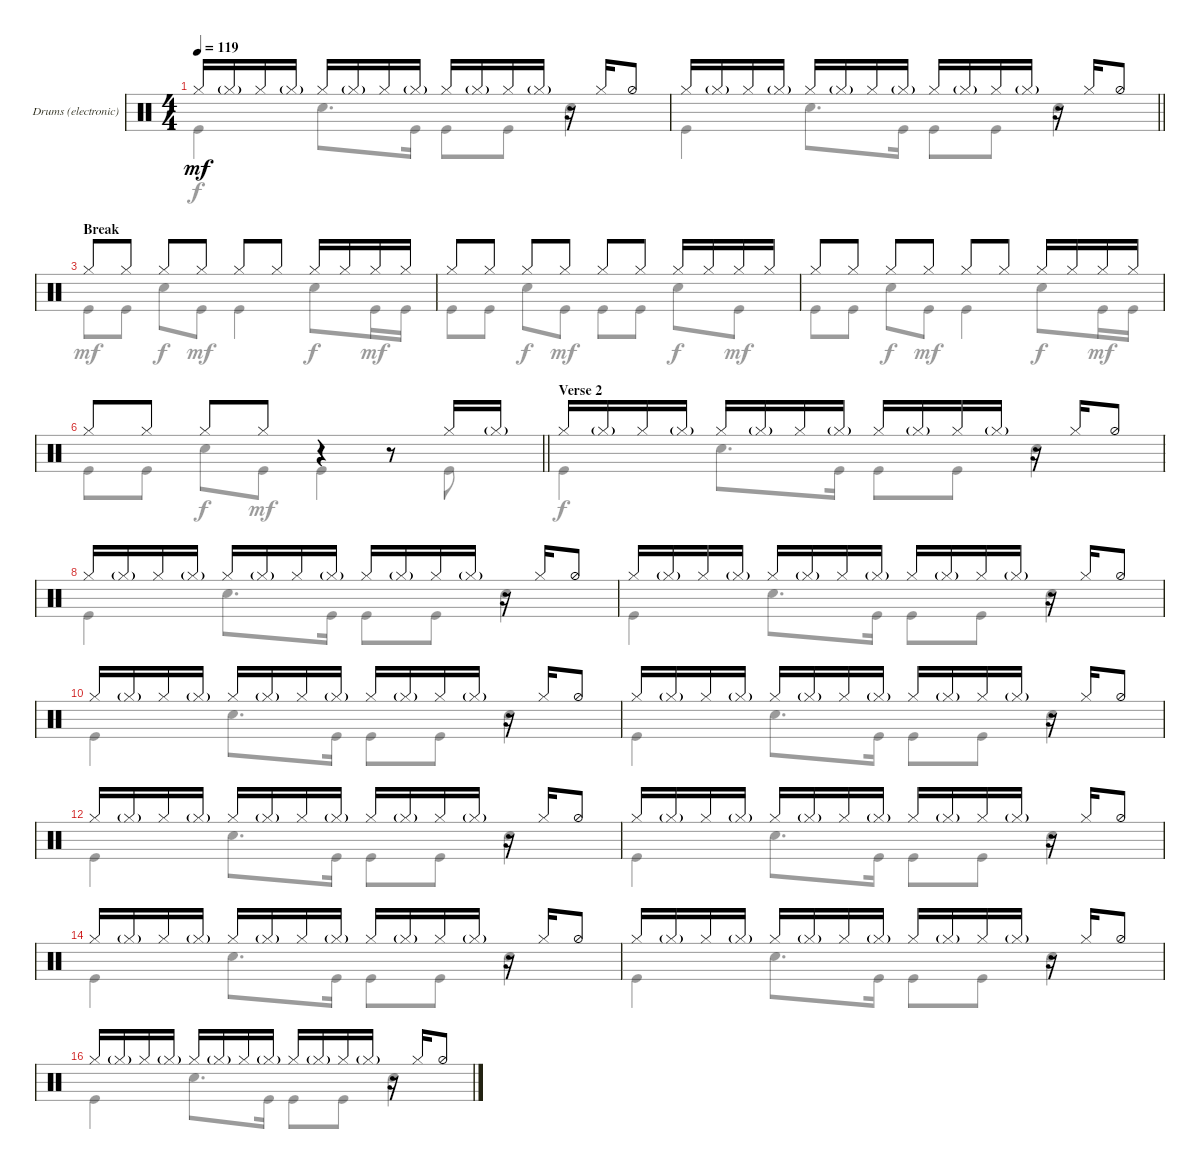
\defaultSystemsLayout 4
\bracketExtendMode groupsimilarinstruments
\useSystemSignSeparator
\multiBarRest
\multiTrackTrackNamePolicy allsystems
\firstSystemTrackNameMode fullname
\firstSystemTrackNameOrientation horizontal
\otherSystemsTrackNameOrientation horizontal
\defaultBarNumberDisplay FirstOfSystem
\track ("Drums (electronic)" "Dr.") {multiBarRest instrument percussion}
\staff {score}
\articulation defaults
\voice
\ts (4 4)
\tempo 119
\clef neutral
\ks aminor "Hi-Hat (closed)".16{dy mf} "Hi-Hat (closed)"{g}.16 "Hi-Hat (closed)".16 "Hi-Hat (closed)"{g}.16 "Hi-Hat (closed)".16 "Hi-Hat (closed)"{g}.16 "Hi-Hat (closed)".16 "Hi-Hat (closed)"{g}.16 "Hi-Hat (closed)".16 "Hi-Hat (closed)"{g}.16 "Hi-Hat (closed)".16 "Hi-Hat (closed)"{g}.16
r.16 "Hi-Hat (closed)".16 "Hi-Hat (half)".8 |
\barLineRight lightlight "Hi-Hat (closed)".16 "Hi-Hat (closed)"{g}.16 "Hi-Hat (closed)".16 "Hi-Hat (closed)"{g}.16 "Hi-Hat (closed)".16 "Hi-Hat (closed)"{g}.16 "Hi-Hat (closed)".16 "Hi-Hat (closed)"{g}.16 "Hi-Hat (closed)".16 "Hi-Hat (closed)"{g}.16 "Hi-Hat (closed)".16 "Hi-Hat (closed)"{g}.16
r.16 "Hi-Hat (closed)".16 "Hi-Hat (half)".8 |
\section ("" "Break")
"Hi-Hat (closed)".8 "Hi-Hat (closed)".8 "Hi-Hat (closed)".8 "Hi-Hat (closed)".8 "Hi-Hat (closed)".8 "Hi-Hat (closed)".8 "Hi-Hat (closed)".16 "Hi-Hat (closed)".16 "Hi-Hat (closed)".16 "Hi-Hat (closed)".16 |
"Hi-Hat (closed)".8 "Hi-Hat (closed)".8 "Hi-Hat (closed)".8 "Hi-Hat (closed)".8 "Hi-Hat (closed)".8 "Hi-Hat (closed)".8 "Hi-Hat (closed)".16 "Hi-Hat (closed)".16 "Hi-Hat (closed)".16 "Hi-Hat (closed)".16 |
"Hi-Hat (closed)".8 "Hi-Hat (closed)".8 "Hi-Hat (closed)".8 "Hi-Hat (closed)".8 "Hi-Hat (closed)".8 "Hi-Hat (closed)".8 "Hi-Hat (closed)".16 "Hi-Hat (closed)".16 "Hi-Hat (closed)".16 "Hi-Hat (closed)".16 |
\barLineRight lightlight "Hi-Hat (closed)".8 "Hi-Hat (closed)".8 "Hi-Hat (closed)".8 "Hi-Hat (closed)".8
r.4 r.8 "Hi-Hat (closed)".16 "Hi-Hat (closed)"{g}.16 |
\section ("" "Verse 2")
"Hi-Hat (closed)".16 "Hi-Hat (closed)"{g}.16 "Hi-Hat (closed)".16 "Hi-Hat (closed)"{g}.16 "Hi-Hat (closed)".16 "Hi-Hat (closed)"{g}.16 "Hi-Hat (closed)".16 "Hi-Hat (closed)"{g}.16 "Hi-Hat (closed)".16 "Hi-Hat (closed)"{g}.16 "Hi-Hat (closed)".16 "Hi-Hat (closed)"{g}.16 r.16 "Hi-Hat (closed)".16 "Hi-Hat (half)".8 |
"Hi-Hat (closed)".16 "Hi-Hat (closed)"{g}.16 "Hi-Hat (closed)".16 "Hi-Hat (closed)"{g}.16 "Hi-Hat (closed)".16 "Hi-Hat (closed)"{g}.16 "Hi-Hat (closed)".16 "Hi-Hat (closed)"{g}.16 "Hi-Hat (closed)".16 "Hi-Hat (closed)"{g}.16 "Hi-Hat (closed)".16 "Hi-Hat (closed)"{g}.16 r.16 "Hi-Hat (closed)".16 "Hi-Hat (half)".8 |
"Hi-Hat (closed)".16 "Hi-Hat (closed)"{g}.16 "Hi-Hat (closed)".16 "Hi-Hat (closed)"{g}.16 "Hi-Hat (closed)".16 "Hi-Hat (closed)"{g}.16 "Hi-Hat (closed)".16 "Hi-Hat (closed)"{g}.16 "Hi-Hat (closed)".16 "Hi-Hat (closed)"{g}.16 "Hi-Hat (closed)".16 "Hi-Hat (closed)"{g}.16 r.16 "Hi-Hat (closed)".16 "Hi-Hat (half)".8 |
"Hi-Hat (closed)".16 "Hi-Hat (closed)"{g}.16 "Hi-Hat (closed)".16 "Hi-Hat (closed)"{g}.16 "Hi-Hat (closed)".16 "Hi-Hat (closed)"{g}.16 "Hi-Hat (closed)".16 "Hi-Hat (closed)"{g}.16 "Hi-Hat (closed)".16 "Hi-Hat (closed)"{g}.16 "Hi-Hat (closed)".16 "Hi-Hat (closed)"{g}.16 r.16 "Hi-Hat (closed)".16 "Hi-Hat (half)".8 |
"Hi-Hat (closed)".16 "Hi-Hat (closed)"{g}.16 "Hi-Hat (closed)".16 "Hi-Hat (closed)"{g}.16 "Hi-Hat (closed)".16 "Hi-Hat (closed)"{g}.16 "Hi-Hat (closed)".16 "Hi-Hat (closed)"{g}.16 "Hi-Hat (closed)".16 "Hi-Hat (closed)"{g}.16 "Hi-Hat (closed)".16 "Hi-Hat (closed)"{g}.16 r.16 "Hi-Hat (closed)".16 "Hi-Hat (half)".8 |
"Hi-Hat (closed)".16 "Hi-Hat (closed)"{g}.16 "Hi-Hat (closed)".16 "Hi-Hat (closed)"{g}.16 "Hi-Hat (closed)".16 "Hi-Hat (closed)"{g}.16 "Hi-Hat (closed)".16 "Hi-Hat (closed)"{g}.16 "Hi-Hat (closed)".16 "Hi-Hat (closed)"{g}.16 "Hi-Hat (closed)".16 "Hi-Hat (closed)"{g}.16 r.16 "Hi-Hat (closed)".16 "Hi-Hat (half)".8 |
"Hi-Hat (closed)".16 "Hi-Hat (closed)"{g}.16 "Hi-Hat (closed)".16 "Hi-Hat (closed)"{g}.16 "Hi-Hat (closed)".16 "Hi-Hat (closed)"{g}.16 "Hi-Hat (closed)".16 "Hi-Hat (closed)"{g}.16 "Hi-Hat (closed)".16 "Hi-Hat (closed)"{g}.16 "Hi-Hat (closed)".16 "Hi-Hat (closed)"{g}.16 r.16 "Hi-Hat (closed)".16 "Hi-Hat (half)".8 |
"Hi-Hat (closed)".16 "Hi-Hat (closed)"{g}.16 "Hi-Hat (closed)".16 "Hi-Hat (closed)"{g}.16 "Hi-Hat (closed)".16 "Hi-Hat (closed)"{g}.16 "Hi-Hat (closed)".16 "Hi-Hat (closed)"{g}.16 "Hi-Hat (closed)".16 "Hi-Hat (closed)"{g}.16 "Hi-Hat (closed)".16 "Hi-Hat (closed)"{g}.16 r.16 "Hi-Hat (closed)".16 "Hi-Hat (half)".8 |
"Hi-Hat (closed)".16 "Hi-Hat (closed)"{g}.16 "Hi-Hat (closed)".16 "Hi-Hat (closed)"{g}.16 "Hi-Hat (closed)".16 "Hi-Hat (closed)"{g}.16 "Hi-Hat (closed)".16 "Hi-Hat (closed)"{g}.16 "Hi-Hat (closed)".16 "Hi-Hat (closed)"{g}.16 "Hi-Hat (closed)".16 "Hi-Hat (closed)"{g}.16 r.16 "Hi-Hat (closed)".16 "Hi-Hat (half)".8 |
"Hi-Hat (closed)".16 "Hi-Hat (closed)"{g}.16 "Hi-Hat (closed)".16 "Hi-Hat (closed)"{g}.16 "Hi-Hat (closed)".16 "Hi-Hat (closed)"{g}.16 "Hi-Hat (closed)".16 "Hi-Hat (closed)"{g}.16 "Hi-Hat (closed)".16 "Hi-Hat (closed)"{g}.16 "Hi-Hat (closed)".16 "Hi-Hat (closed)"{g}.16 r.16 "Hi-Hat (closed)".16 "Hi-Hat (half)".8
\voice
\clef neutral
\ottava regular
\simile none
\ks aminor "Kick (hit)".4{dy f} "Snare (hit) 2".8{d} "Kick (hit)".16 "Kick (hit)".8 "Kick (hit)".8 "Snare (hit) 2".4
|
\barLineRight lightlight "Kick (hit)".4 "Snare (hit) 2".8{d} "Kick (hit)".16 "Kick (hit)".8 "Kick (hit)".8 "Snare (hit) 2".4
|
"Kick (hit)".8{dy mf} "Kick (hit)".8 "Snare (hit) 2".8{dy f} "Kick (hit)".8{dy mf} "Kick (hit)".4 "Snare (hit) 2".8{dy f} "Kick (hit)".16{dy mf} "Kick (hit)".16 |
"Kick (hit)".8 "Kick (hit)".8 "Snare (hit) 2".8{dy f} "Kick (hit)".8{dy mf} "Kick (hit)".8 "Kick (hit)".8 "Snare (hit) 2".8{dy f} "Kick (hit)".8{dy mf} |
"Kick (hit)".8 "Kick (hit)".8 "Snare (hit) 2".8{dy f} "Kick (hit)".8{dy mf} "Kick (hit)".4 "Snare (hit) 2".8{dy f} "Kick (hit)".16{dy mf} "Kick (hit)".16 |
\barLineRight lightlight "Kick (hit)".8 "Kick (hit)".8 "Snare (hit) 2".8{dy f} "Kick (hit)".8{dy mf} "Kick (hit)".4
r.8 "Kick (hit)".8 |
"Kick (hit)".4{dy f} "Snare (hit) 2".8{d} "Kick (hit)".16 "Kick (hit)".8 "Kick (hit)".8 "Snare (hit) 2".4 |
"Kick (hit)".4 "Snare (hit) 2".8{d} "Kick (hit)".16 "Kick (hit)".8 "Kick (hit)".8 "Snare (hit) 2".4 |
"Kick (hit)".4 "Snare (hit) 2".8{d} "Kick (hit)".16 "Kick (hit)".8 "Kick (hit)".8 "Snare (hit) 2".4 |
"Kick (hit)".4 "Snare (hit) 2".8{d} "Kick (hit)".16 "Kick (hit)".8 "Kick (hit)".8 "Snare (hit) 2".4 |
"Kick (hit)".4 "Snare (hit) 2".8{d} "Kick (hit)".16 "Kick (hit)".8 "Kick (hit)".8 "Snare (hit) 2".4 |
"Kick (hit)".4 "Snare (hit) 2".8{d} "Kick (hit)".16 "Kick (hit)".8 "Kick (hit)".8 "Snare (hit) 2".4 |
"Kick (hit)".4 "Snare (hit) 2".8{d} "Kick (hit)".16 "Kick (hit)".8 "Kick (hit)".8 "Snare (hit) 2".4 |
"Kick (hit)".4 "Snare (hit) 2".8{d} "Kick (hit)".16 "Kick (hit)".8 "Kick (hit)".8 "Snare (hit) 2".4 |
"Kick (hit)".4 "Snare (hit) 2".8{d} "Kick (hit)".16 "Kick (hit)".8 "Kick (hit)".8 "Snare (hit) 2".4 |
"Kick (hit)".4 "Snare (hit) 2".8{d} "Kick (hit)".16 "Kick (hit)".8 "Kick (hit)".8 "Snare (hit) 2".4
